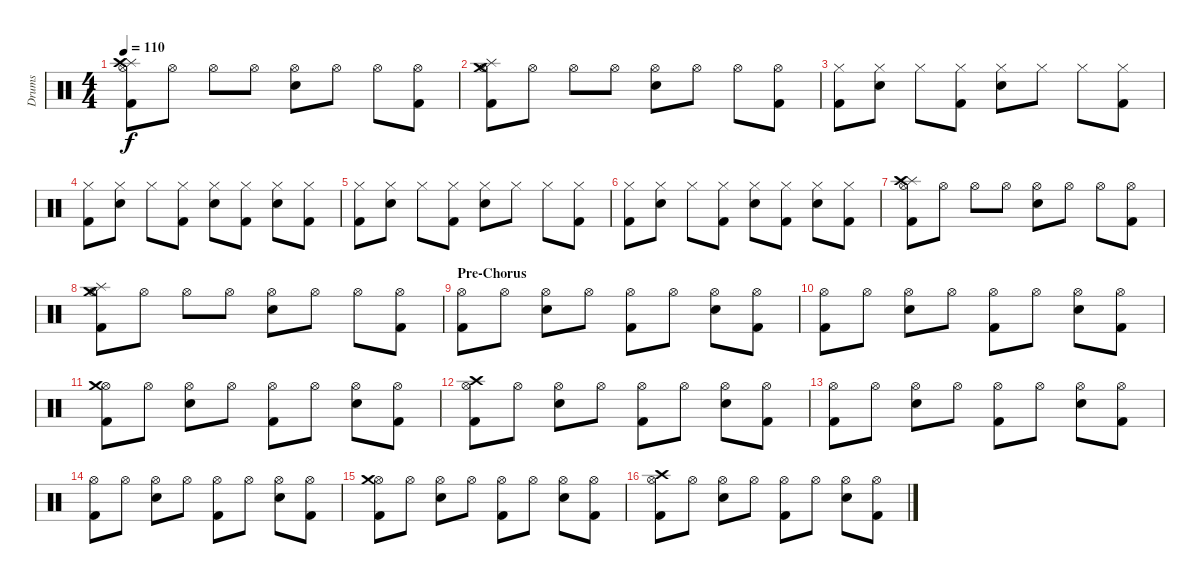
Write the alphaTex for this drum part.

\track ("Drums" "Drums") {instrument percussion}
\staff {score}
\articulation defaults
\ts (4 4)
\tempo 110
\clef neutral
\ks c
("Hi-Hat (open)" "Splash (hit)" "Crash high (hit)" "Kick (hit) 2").8{dy f} "Hi-Hat (open)".8 "Hi-Hat (open)".8 "Hi-Hat (open)".8 ("Hi-Hat (open)" "Snare (hit) 2").8 "Hi-Hat (open)".8 "Hi-Hat (open)".8 ("Hi-Hat (open)" "Kick (hit) 2").8 |
("Hi-Hat (open)" "Splash (hit)" "Crash medium (hit)" "Kick (hit) 2").8 "Hi-Hat (open)".8 "Hi-Hat (open)".8 "Hi-Hat (open)".8 ("Hi-Hat (open)" "Snare (hit) 2").8 "Hi-Hat (open)".8 "Hi-Hat (open)".8 ("Hi-Hat (open)" "Kick (hit) 2").8 |
("Hi-Hat (closed)" "Kick (hit) 2").8 ("Hi-Hat (closed)" "Snare (hit) 2").8 "Hi-Hat (closed)".8 ("Hi-Hat (closed)" "Kick (hit) 2").8 ("Hi-Hat (closed)" "Snare (hit) 2").8 "Hi-Hat (closed)".8 "Hi-Hat (closed)".8 ("Hi-Hat (closed)" "Kick (hit) 2").8 |
("Hi-Hat (closed)" "Kick (hit) 2").8 ("Hi-Hat (closed)" "Snare (hit) 2").8 "Hi-Hat (closed)".8 ("Hi-Hat (closed)" "Kick (hit) 2").8 ("Hi-Hat (closed)" "Snare (hit) 2").8 ("Hi-Hat (closed)" "Kick (hit) 2").8 ("Hi-Hat (closed)" "Snare (hit) 2").8 ("Hi-Hat (closed)" "Kick (hit) 2").8 |
("Hi-Hat (closed)" "Kick (hit) 2").8 ("Hi-Hat (closed)" "Snare (hit) 2").8 "Hi-Hat (closed)".8 ("Hi-Hat (closed)" "Kick (hit) 2").8 ("Hi-Hat (closed)" "Snare (hit) 2").8 "Hi-Hat (closed)".8 "Hi-Hat (closed)".8 ("Hi-Hat (closed)" "Kick (hit) 2").8 |
("Hi-Hat (closed)" "Kick (hit) 2").8 ("Hi-Hat (closed)" "Snare (hit) 2").8 "Hi-Hat (closed)".8 ("Hi-Hat (closed)" "Kick (hit) 2").8 ("Hi-Hat (closed)" "Snare (hit) 2").8 ("Hi-Hat (closed)" "Kick (hit) 2").8 ("Hi-Hat (closed)" "Snare (hit) 2").8 ("Hi-Hat (closed)" "Kick (hit) 2").8 |
("Hi-Hat (open)" "Splash (hit)" "Crash high (hit)" "Kick (hit) 2").8 "Hi-Hat (open)".8 "Hi-Hat (open)".8 "Hi-Hat (open)".8 ("Hi-Hat (open)" "Snare (hit) 2").8 "Hi-Hat (open)".8 "Hi-Hat (open)".8 ("Hi-Hat (open)" "Kick (hit) 2").8 |
("Hi-Hat (open)" "Splash (hit)" "Crash medium (hit)" "Kick (hit) 2").8 "Hi-Hat (open)".8 "Hi-Hat (open)".8 "Hi-Hat (open)".8 ("Hi-Hat (open)" "Snare (hit) 2").8 "Hi-Hat (open)".8 "Hi-Hat (open)".8 ("Hi-Hat (open)" "Kick (hit) 2").8 |
\section ("" "Pre-Chorus")
("Hi-Hat (open)" "Kick (hit) 2").8 "Hi-Hat (open)".8 ("Hi-Hat (open)" "Snare (hit) 2").8 "Hi-Hat (open)".8 ("Hi-Hat (open)" "Kick (hit) 2").8 "Hi-Hat (open)".8 ("Hi-Hat (open)" "Snare (hit) 2").8 ("Hi-Hat (open)" "Kick (hit) 2").8 |
("Hi-Hat (open)" "Kick (hit) 2").8 "Hi-Hat (open)".8 ("Hi-Hat (open)" "Snare (hit) 2").8 "Hi-Hat (open)".8 ("Hi-Hat (open)" "Kick (hit) 2").8 "Hi-Hat (open)".8 ("Hi-Hat (open)" "Snare (hit) 2").8 ("Hi-Hat (open)" "Kick (hit) 2").8 |
("Hi-Hat (open)" "Crash medium (hit)" "Kick (hit) 2").8 "Hi-Hat (open)".8 ("Hi-Hat (open)" "Snare (hit) 2").8 "Hi-Hat (open)".8 ("Hi-Hat (open)" "Kick (hit) 2").8 "Hi-Hat (open)".8 ("Hi-Hat (open)" "Snare (hit) 2").8 ("Hi-Hat (open)" "Kick (hit) 2").8 |
("Hi-Hat (open)" "Crash high (hit)" "Kick (hit) 2").8 "Hi-Hat (open)".8 ("Hi-Hat (open)" "Snare (hit) 2").8 "Hi-Hat (open)".8 ("Hi-Hat (open)" "Kick (hit) 2").8 "Hi-Hat (open)".8 ("Hi-Hat (open)" "Snare (hit) 2").8 ("Hi-Hat (open)" "Kick (hit) 2").8 |
("Hi-Hat (open)" "Kick (hit) 2").8 "Hi-Hat (open)".8 ("Hi-Hat (open)" "Snare (hit) 2").8 "Hi-Hat (open)".8 ("Hi-Hat (open)" "Kick (hit) 2").8 "Hi-Hat (open)".8 ("Hi-Hat (open)" "Snare (hit) 2").8 ("Hi-Hat (open)" "Kick (hit) 2").8 |
("Hi-Hat (open)" "Kick (hit) 2").8 "Hi-Hat (open)".8 ("Hi-Hat (open)" "Snare (hit) 2").8 "Hi-Hat (open)".8 ("Hi-Hat (open)" "Kick (hit) 2").8 "Hi-Hat (open)".8 ("Hi-Hat (open)" "Snare (hit) 2").8 ("Hi-Hat (open)" "Kick (hit) 2").8 |
("Hi-Hat (open)" "Crash medium (hit)" "Kick (hit) 2").8 "Hi-Hat (open)".8 ("Hi-Hat (open)" "Snare (hit) 2").8 "Hi-Hat (open)".8 ("Hi-Hat (open)" "Kick (hit) 2").8 "Hi-Hat (open)".8 ("Hi-Hat (open)" "Snare (hit) 2").8 ("Hi-Hat (open)" "Kick (hit) 2").8 |
("Hi-Hat (open)" "Crash high (hit)" "Kick (hit) 2").8 "Hi-Hat (open)".8 ("Hi-Hat (open)" "Snare (hit) 2").8 "Hi-Hat (open)".8 ("Hi-Hat (open)" "Kick (hit) 2").8 "Hi-Hat (open)".8 ("Hi-Hat (open)" "Snare (hit) 2").8 ("Hi-Hat (open)" "Kick (hit) 2").8
